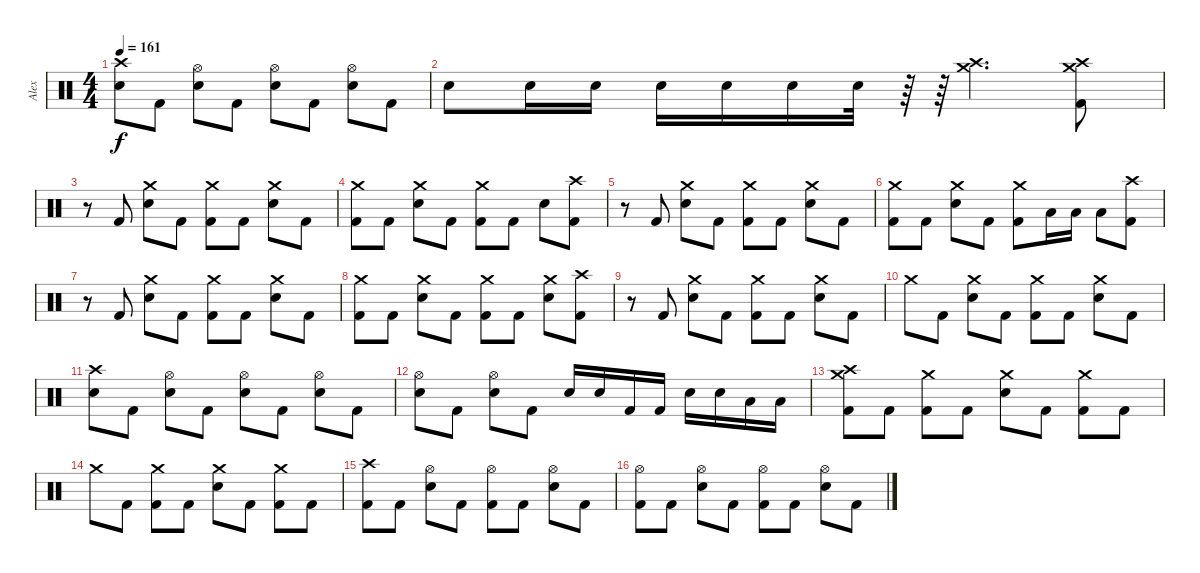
\track ("Alex" "Alex") {instrument percussion}
\staff
\articulation defaults
\ts (4 4)
\tempo 161
\clef neutral
\ks c
("Crash high (hit)" "Electric Snare (hit)").8{dy f} "Kick (hit) 2".8 ("Hi-Hat (open)" "Electric Snare (hit)").8 "Kick (hit) 2".8 ("Hi-Hat (open)" "Electric Snare (hit)").8 "Kick (hit) 2".8 ("Hi-Hat (open)" "Electric Snare (hit)").8 "Kick (hit) 2".8 |
"Electric Snare (hit)".8 "Electric Snare (hit)".16 "Electric Snare (hit)".16 "Electric Snare (hit)".16 "Electric Snare (hit)".16 "Electric Snare (hit)".16 "Electric Snare (hit)".32 r.64 r.64{volume 0} ("Crash medium (hit)" "Crash high (hit)").4{d volume 16} ("Crash medium (hit)" "Crash high (hit)" "Kick (hit) 2").8 |
r.8 "Kick (hit) 2".8 ("Crash medium (hit)" "Electric Snare (hit)").8 "Kick (hit) 2".8 ("Crash medium (hit)" "Kick (hit) 2").8 "Kick (hit) 2".8 ("Crash medium (hit)" "Electric Snare (hit)").8 "Kick (hit) 2".8 |
("Crash medium (hit)" "Kick (hit) 2").8 "Kick (hit) 2".8 ("Crash medium (hit)" "Electric Snare (hit)").8 "Kick (hit) 2".8 ("Crash medium (hit)" "Kick (hit) 2").8 "Kick (hit) 2".8 "Electric Snare (hit)".8 ("Crash high (hit)" "Kick (hit) 2").8 |
r.8 "Kick (hit) 2".8 ("Crash medium (hit)" "Electric Snare (hit)").8 "Kick (hit) 2".8 ("Crash medium (hit)" "Kick (hit) 2").8 "Kick (hit) 2".8 ("Crash medium (hit)" "Electric Snare (hit)").8 "Kick (hit) 2".8 |
("Crash medium (hit)" "Kick (hit) 2").8 "Kick (hit) 2".8 ("Crash medium (hit)" "Electric Snare (hit)").8 "Kick (hit) 2".8 ("Crash medium (hit)" "Kick (hit) 2").8 "Low Floor Tom (hit)".16 "Low Floor Tom (hit)".16 "Low Floor Tom (hit)".8 ("Crash high (hit)" "Kick (hit) 2").8 |
r.8 "Kick (hit) 2".8 ("Crash medium (hit)" "Electric Snare (hit)").8 "Kick (hit) 2".8 ("Crash medium (hit)" "Kick (hit) 2").8 "Kick (hit) 2".8 ("Crash medium (hit)" "Electric Snare (hit)").8 "Kick (hit) 2".8 |
("Crash medium (hit)" "Kick (hit) 2").8 "Kick (hit) 2".8 ("Crash medium (hit)" "Electric Snare (hit)").8 "Kick (hit) 2".8 ("Crash medium (hit)" "Kick (hit) 2").8 "Kick (hit) 2".8 ("Crash medium (hit)" "Electric Snare (hit)").8 ("Crash high (hit)" "Kick (hit) 2").8 |
r.8 "Kick (hit) 2".8 ("Crash medium (hit)" "Electric Snare (hit)").8 "Kick (hit) 2".8 ("Crash medium (hit)" "Kick (hit) 2").8 "Kick (hit) 2".8 ("Crash medium (hit)" "Electric Snare (hit)").8 "Kick (hit) 2".8 |
"Crash medium (hit)".8 "Kick (hit) 2".8 ("Crash medium (hit)" "Electric Snare (hit)").8 "Kick (hit) 2".8 ("Crash medium (hit)" "Kick (hit) 2").8 "Kick (hit) 2".8 ("Crash medium (hit)" "Electric Snare (hit)").8 "Kick (hit) 2".8 |
("Crash high (hit)" "Electric Snare (hit)").8 "Kick (hit) 2".8 ("Hi-Hat (open)" "Electric Snare (hit)").8 "Kick (hit) 2".8 ("Hi-Hat (open)" "Electric Snare (hit)").8 "Kick (hit) 2".8 ("Hi-Hat (open)" "Electric Snare (hit)").8 "Kick (hit) 2".8 |
("Hi-Hat (open)" "Electric Snare (hit)").8 "Kick (hit) 2".8 ("Hi-Hat (open)" "Electric Snare (hit)").8 "Kick (hit) 2".8 "Electric Snare (hit)".16 "Electric Snare (hit)".16 "Kick (hit) 2".16 "Kick (hit) 2".16 "Electric Snare (hit)".16 "Electric Snare (hit)".16 "Low Floor Tom (hit)".16 "Low Floor Tom (hit)".16 |
("Crash medium (hit)" "Crash high (hit)" "Kick (hit) 2").8 "Kick (hit) 2".8 ("Crash medium (hit)" "Kick (hit) 2").8 "Kick (hit) 2".8 ("Crash medium (hit)" "Electric Snare (hit)").8 "Kick (hit) 2".8 ("Crash medium (hit)" "Kick (hit) 2").8 "Kick (hit) 2".8 |
"Crash medium (hit)".8 "Kick (hit) 2".8 ("Crash medium (hit)" "Kick (hit) 2").8 "Kick (hit) 2".8 ("Crash medium (hit)" "Electric Snare (hit)").8 "Kick (hit) 2".8 ("Crash medium (hit)" "Kick (hit) 2").8 "Kick (hit) 2".8 |
("Crash high (hit)" "Kick (hit) 2").8 "Kick (hit) 2".8 ("Hi-Hat (open)" "Electric Snare (hit)").8 "Kick (hit) 2".8 ("Hi-Hat (open)" "Kick (hit) 2").8 "Kick (hit) 2".8 ("Hi-Hat (open)" "Electric Snare (hit)").8 "Kick (hit) 2".8 |
("Hi-Hat (open)" "Kick (hit) 2").8 "Kick (hit) 2".8 ("Hi-Hat (open)" "Electric Snare (hit)").8 "Kick (hit) 2".8 ("Hi-Hat (open)" "Kick (hit) 2").8 "Kick (hit) 2".8 ("Hi-Hat (open)" "Electric Snare (hit)").8 "Kick (hit) 2".8
